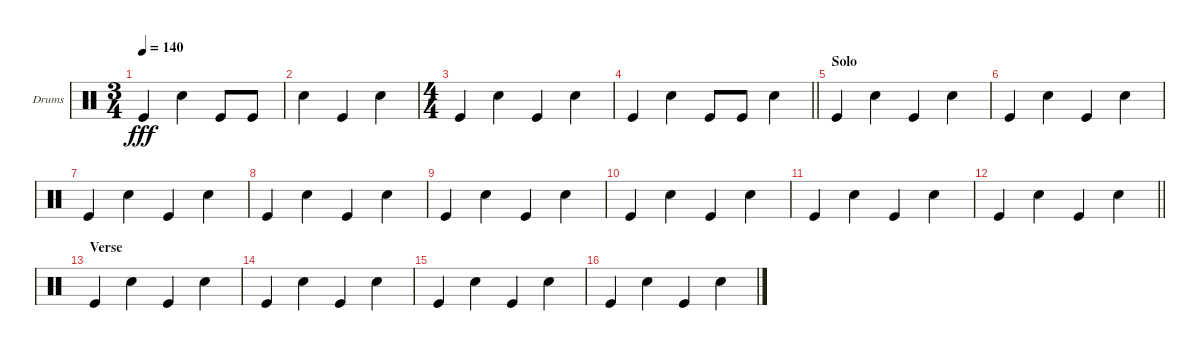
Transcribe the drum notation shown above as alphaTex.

\bracketExtendMode groupsimilarinstruments
\firstSystemTrackNameOrientation horizontal
\otherSystemsTrackNameOrientation horizontal
\track ("Drumkit" "Drums") {instrument percussion}
\staff {score}
\articulation defaults
\ts (3 4)
\beaming (8 2 2 2)
\tempo 140
\clef neutral
\ks c "Kick (hit)".4{dy fff} "Snare (hit) 2".4 "Kick (hit)".8 "Kick (hit)".8
|
"Snare (hit) 2".4 "Kick (hit)".4 "Snare (hit) 2".4 |
\ts (4 4)
\beaming (8 2 2 2 2)
"Kick (hit)".4 "Snare (hit) 2".4 "Kick (hit)".4 "Snare (hit) 2".4 |
\barLineRight lightlight "Kick (hit)".4 "Snare (hit) 2".4 "Kick (hit)".8 "Kick (hit)".8 "Snare (hit) 2".4
|
\section ("" "Solo")
"Kick (hit)".4 "Snare (hit) 2".4 "Kick (hit)".4 "Snare (hit) 2".4 |
"Kick (hit)".4 "Snare (hit) 2".4 "Kick (hit)".4 "Snare (hit) 2".4 |
"Kick (hit)".4 "Snare (hit) 2".4 "Kick (hit)".4 "Snare (hit) 2".4 |
"Kick (hit)".4 "Snare (hit) 2".4 "Kick (hit)".4 "Snare (hit) 2".4 |
"Kick (hit)".4 "Snare (hit) 2".4 "Kick (hit)".4 "Snare (hit) 2".4 |
"Kick (hit)".4 "Snare (hit) 2".4 "Kick (hit)".4 "Snare (hit) 2".4 |
"Kick (hit)".4 "Snare (hit) 2".4 "Kick (hit)".4 "Snare (hit) 2".4 |
\barLineRight lightlight "Kick (hit)".4 "Snare (hit) 2".4 "Kick (hit)".4 "Snare (hit) 2".4
|
\section ("" "Verse")
"Kick (hit)".4 "Snare (hit) 2".4 "Kick (hit)".4 "Snare (hit) 2".4 |
"Kick (hit)".4 "Snare (hit) 2".4 "Kick (hit)".4 "Snare (hit) 2".4 |
"Kick (hit)".4 "Snare (hit) 2".4 "Kick (hit)".4 "Snare (hit) 2".4 |
"Kick (hit)".4 "Snare (hit) 2".4 "Kick (hit)".4 "Snare (hit) 2".4
